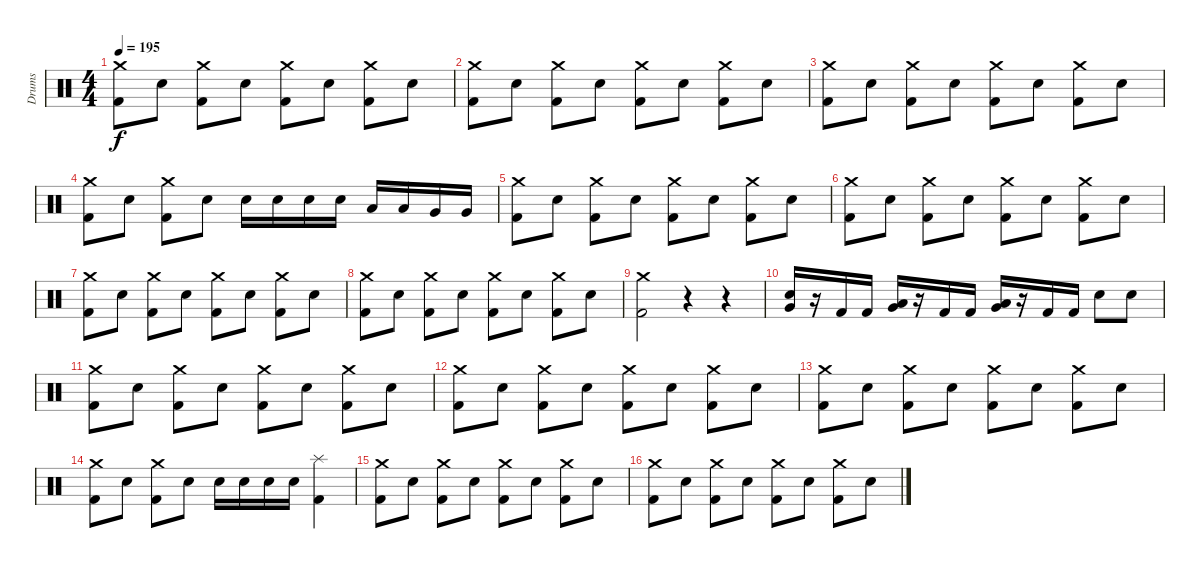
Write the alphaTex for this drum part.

\track ("Drums" "Drums") {instrument percussion}
\staff {score}
\articulation defaults
\ts (4 4)
\tempo 195
\clef neutral
\ks c
("Crash medium (hit)" "Kick (hit) 2").8{dy f} "Electric Snare (hit)".8 ("Crash medium (hit)" "Kick (hit) 2").8 "Electric Snare (hit)".8 ("Crash medium (hit)" "Kick (hit) 2").8 "Electric Snare (hit)".8 ("Crash medium (hit)" "Kick (hit) 2").8 "Electric Snare (hit)".8 |
("Crash medium (hit)" "Kick (hit) 2").8 "Electric Snare (hit)".8 ("Crash medium (hit)" "Kick (hit) 2").8 "Electric Snare (hit)".8 ("Crash medium (hit)" "Kick (hit) 2").8 "Electric Snare (hit)".8 ("Crash medium (hit)" "Kick (hit) 2").8 "Electric Snare (hit)".8 |
("Crash medium (hit)" "Kick (hit) 2").8 "Electric Snare (hit)".8 ("Crash medium (hit)" "Kick (hit) 2").8 "Electric Snare (hit)".8 ("Crash medium (hit)" "Kick (hit) 2").8 "Electric Snare (hit)".8 ("Crash medium (hit)" "Kick (hit) 2").8 "Electric Snare (hit)".8 |
("Crash medium (hit)" "Kick (hit) 2").8 "Electric Snare (hit)".8 ("Crash medium (hit)" "Kick (hit) 2").8 "Electric Snare (hit)".8 "Electric Snare (hit)".16 "Electric Snare (hit)".16 "Electric Snare (hit)".16 "Electric Snare (hit)".16 "Low Tom (hit)".16 "Low Tom (hit)".16 "Very Low Tom (hit)".16 "Very Low Tom (hit)".16 |
("Crash medium (hit)" "Kick (hit) 2").8 "Electric Snare (hit)".8 ("Crash medium (hit)" "Kick (hit) 2").8 "Electric Snare (hit)".8 ("Crash medium (hit)" "Kick (hit) 2").8 "Electric Snare (hit)".8 ("Crash medium (hit)" "Kick (hit) 2").8 "Electric Snare (hit)".8 |
("Crash medium (hit)" "Kick (hit) 2").8 "Electric Snare (hit)".8 ("Crash medium (hit)" "Kick (hit) 2").8 "Electric Snare (hit)".8 ("Crash medium (hit)" "Kick (hit) 2").8 "Electric Snare (hit)".8 ("Crash medium (hit)" "Kick (hit) 2").8 "Electric Snare (hit)".8 |
("Crash medium (hit)" "Kick (hit) 2").8 "Electric Snare (hit)".8 ("Crash medium (hit)" "Kick (hit) 2").8 "Electric Snare (hit)".8 ("Crash medium (hit)" "Kick (hit) 2").8 "Electric Snare (hit)".8 ("Crash medium (hit)" "Kick (hit) 2").8 "Electric Snare (hit)".8 |
("Crash medium (hit)" "Kick (hit) 2").8 "Electric Snare (hit)".8 ("Crash medium (hit)" "Kick (hit) 2").8 "Electric Snare (hit)".8 ("Crash medium (hit)" "Kick (hit) 2").8 "Electric Snare (hit)".8 ("Crash medium (hit)" "Kick (hit) 2").8 "Electric Snare (hit)".8 |
("Crash medium (hit)" "Kick (hit) 2").2 r.4 r.4 |
("Electric Snare (hit)" "Very Low Tom (hit)").16 r.16 "Kick (hit) 2".16 "Kick (hit) 2".16 ("Low Tom (hit)" "Very Low Tom (hit)").16 r.16 "Kick (hit) 2".16 "Kick (hit) 2".16 ("Very Low Tom (hit)" "Low Floor Tom (hit)").16 r.16 "Kick (hit) 2".16 "Kick (hit) 2".16 "Electric Snare (hit)".8 "Electric Snare (hit)".8 |
("Crash medium (hit)" "Kick (hit) 2").8 "Electric Snare (hit)".8 ("Crash medium (hit)" "Kick (hit) 2").8 "Electric Snare (hit)".8 ("Crash medium (hit)" "Kick (hit) 2").8 "Electric Snare (hit)".8 ("Crash medium (hit)" "Kick (hit) 2").8 "Electric Snare (hit)".8 |
("Crash medium (hit)" "Kick (hit) 2").8 "Electric Snare (hit)".8 ("Crash medium (hit)" "Kick (hit) 2").8 "Electric Snare (hit)".8 ("Crash medium (hit)" "Kick (hit) 2").8 "Electric Snare (hit)".8 ("Crash medium (hit)" "Kick (hit) 2").8 "Electric Snare (hit)".8 |
("Crash medium (hit)" "Kick (hit) 2").8 "Electric Snare (hit)".8 ("Crash medium (hit)" "Kick (hit) 2").8 "Electric Snare (hit)".8 ("Crash medium (hit)" "Kick (hit) 2").8 "Electric Snare (hit)".8 ("Crash medium (hit)" "Kick (hit) 2").8 "Electric Snare (hit)".8 |
("Crash medium (hit)" "Kick (hit) 2").8 "Electric Snare (hit)".8 ("Crash medium (hit)" "Kick (hit) 2").8 "Electric Snare (hit)".8 "Electric Snare (hit)".16 "Electric Snare (hit)".16 "Electric Snare (hit)".16 "Electric Snare (hit)".16 ("Splash (hit)" "Kick (hit) 2").4 |
("Crash medium (hit)" "Kick (hit) 2").8 "Electric Snare (hit)".8 ("Crash medium (hit)" "Kick (hit) 2").8 "Electric Snare (hit)".8 ("Crash medium (hit)" "Kick (hit) 2").8 "Electric Snare (hit)".8 ("Crash medium (hit)" "Kick (hit) 2").8 "Electric Snare (hit)".8 |
("Crash medium (hit)" "Kick (hit) 2").8 "Electric Snare (hit)".8 ("Crash medium (hit)" "Kick (hit) 2").8 "Electric Snare (hit)".8 ("Crash medium (hit)" "Kick (hit) 2").8 "Electric Snare (hit)".8 ("Crash medium (hit)" "Kick (hit) 2").8 "Electric Snare (hit)".8
